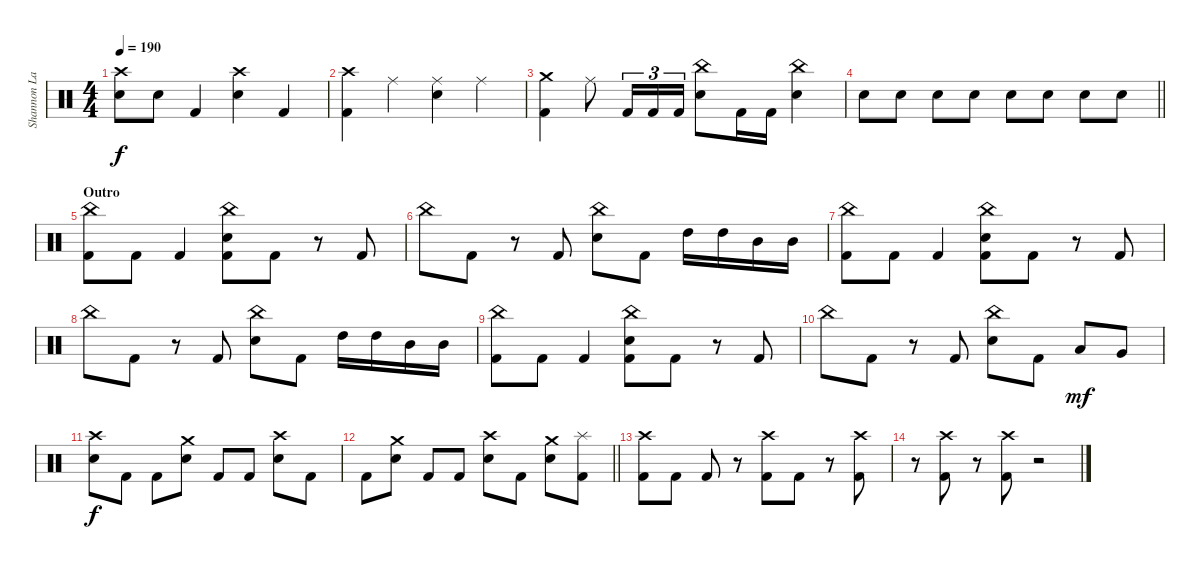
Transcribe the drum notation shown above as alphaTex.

\track ("Shannon Larkin" "Shannon La") {instrument percussion}
\staff {score}
\articulation defaults
\ts (4 4)
\tempo 190
\clef neutral
\ks c
("Crash high (hit)" "Snare (hit) 2").8{dy f} "Snare (hit) 2".8 "Kick (hit) 2".4 ("Crash high (hit)" "Snare (hit) 2").4 "Kick (hit) 2".4 |
("Crash high (hit)" "Kick (hit) 2").4 "Ride (middle)".4 ("Ride (middle)" "Snare (hit) 2").4 "Ride (middle)".4 |
("Crash medium (hit)" "Kick (hit) 2").4 "Ride (middle)".8 "Kick (hit) 2".16{tu (3 2)} "Kick (hit) 2".16{tu (3 2)} "Kick (hit) 2".16{tu (3 2)} ("China (hit)" "Snare (hit) 2").8 "Kick (hit) 2".16 "Kick (hit) 2".16 ("China (hit)" "Snare (hit) 2").4 |
\barLineRight lightlight "Snare (hit) 2".8 "Snare (hit) 2".8 "Snare (hit) 2".8 "Snare (hit) 2".8 "Snare (hit) 2".8 "Snare (hit) 2".8 "Snare (hit) 2".8 "Snare (hit) 2".8
|
\section ("" "Outro")
("China (hit)" "Kick (hit) 2").8 "Kick (hit) 2".8 "Kick (hit) 2".4 ("China (hit)" "Snare (hit) 2" "Kick (hit) 2").8 "Kick (hit) 2".8 r.8 "Kick (hit) 2".8 |
"China (hit)".8 "Kick (hit) 2".8 r.8 "Kick (hit) 2".8 ("China (hit)" "Snare (hit) 2").8 "Kick (hit) 2".8 "High Tom (hit)".16 "High Tom (hit)".16 "Mid Tom (hit)".16 "Mid Tom (hit)".16 |
("China (hit)" "Kick (hit) 2").8 "Kick (hit) 2".8 "Kick (hit) 2".4 ("China (hit)" "Snare (hit) 2" "Kick (hit) 2").8 "Kick (hit) 2".8 r.8 "Kick (hit) 2".8 |
"China (hit)".8 "Kick (hit) 2".8 r.8 "Kick (hit) 2".8 ("China (hit)" "Snare (hit) 2").8 "Kick (hit) 2".8 "High Tom (hit)".16 "High Tom (hit)".16 "Mid Tom (hit)".16 "Mid Tom (hit)".16 |
("China (hit)" "Kick (hit) 2").8 "Kick (hit) 2".8 "Kick (hit) 2".4 ("China (hit)" "Snare (hit) 2" "Kick (hit) 2").8 "Kick (hit) 2".8 r.8 "Kick (hit) 2".8 |
"China (hit)".8 "Kick (hit) 2".8 r.8 "Kick (hit) 2".8 ("China (hit)" "Snare (hit) 2").8 "Kick (hit) 2".8 "Low Tom (hit)".8{dy mf} "Very Low Tom (hit)".8 |
("Crash high (hit)" "Snare (hit) 2").8{dy f} "Kick (hit) 2".8 "Kick (hit) 2".8 ("Crash medium (hit)" "Snare (hit) 2").8 "Kick (hit) 2".8 "Kick (hit) 2".8 ("Crash high (hit)" "Snare (hit) 2").8 "Kick (hit) 2".8 |
\barLineRight lightlight "Kick (hit) 2".8
("Crash medium (hit)" "Snare (hit) 2").8 "Kick (hit) 2".8 "Kick (hit) 2".8 ("Crash high (hit)" "Snare (hit) 2").8 "Kick (hit) 2".8 ("Crash medium (hit)" "Snare (hit) 2").8 ("Splash (hit)" "Kick (hit) 2").8 |
("Crash high (hit)" "Kick (hit) 2").8 "Kick (hit) 2".8 "Kick (hit) 2".8 r.8 ("Crash high (hit)" "Kick (hit) 2").8 "Kick (hit) 2".8 r.8 ("Crash high (hit)" "Kick (hit) 2").8 |
r.8 ("Crash high (hit)" "Kick (hit) 2").8 r.8 ("Crash high (hit)" "Kick (hit) 2").8 r.2
